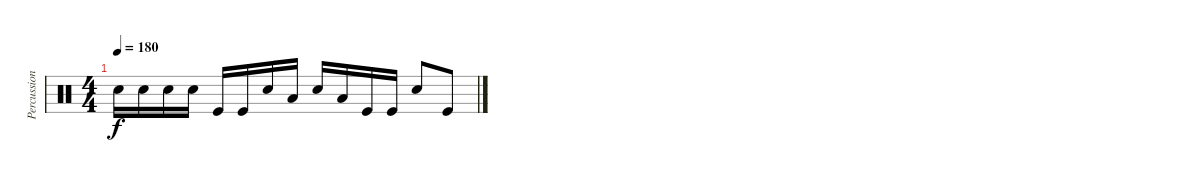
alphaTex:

\track ("Percussion" "Percussion") {instrument percussion}
\staff {score}
\articulation defaults
\ts (4 4)
\tempo 180
\clef neutral
\ks c "Electric Snare (hit)".16{dy f} "Electric Snare (hit)".16 "Electric Snare (hit)".16 "Electric Snare (hit)".16 "Kick (hit)".16 "Kick (hit)".16 "Electric Snare (hit)".16 "Low Tom (hit)".16 "Electric Snare (hit)".16 "Low Tom (hit)".16 "Kick (hit)".16 "Kick (hit)".16 "Electric Snare (hit)".8 "Kick (hit)".8
